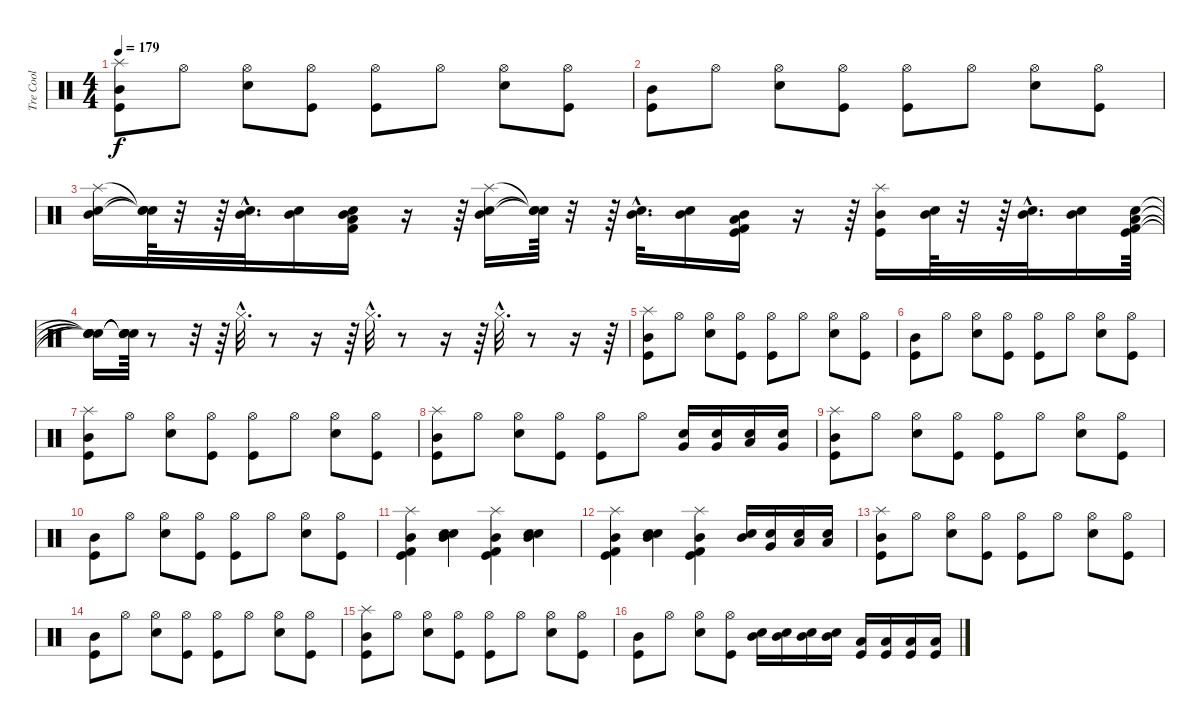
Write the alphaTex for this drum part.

\track ("Tre Cool" "Tre Cool") {instrument percussion}
\staff {score}
\articulation defaults
\ts (4 4)
\tempo 179
\clef neutral
\ks c
("Splash (hit)" "Mid Tom (hit)" "Kick (hit)").8{dy f} "Hi-Hat (open)".8 ("Hi-Hat (open)" "Snare (hit) 2").8 ("Hi-Hat (open)" "Kick (hit)").8 ("Hi-Hat (open)" "Kick (hit)").8 "Hi-Hat (open)".8 ("Hi-Hat (open)" "Snare (hit) 2").8 ("Hi-Hat (open)" "Kick (hit)").8 |
("Mid Tom (hit)" "Kick (hit)").8 "Hi-Hat (open)".8 ("Hi-Hat (open)" "Snare (hit) 2").8 ("Hi-Hat (open)" "Kick (hit)").8 ("Hi-Hat (open)" "Kick (hit)").8 "Hi-Hat (open)".8 ("Hi-Hat (open)" "Snare (hit) 2").8 ("Hi-Hat (open)" "Kick (hit)").8 |
("Mid Tom (hit)" "Snare (hit) 2" "Splash (hit)").16 ("Snare (hit)"{t} "Snare (hit)"{t} "Snare (hit)"{t}).64 r.32 r.64 ("Mid Tom (hit)"{hac} "Snare (hit) 2"{hac}).32{d} ("Mid Tom (hit)" "Snare (hit) 2").16 ("Mid Tom (hit)" "Kick (hit) 2" "Snare (hit) 2" "Low Floor Tom (hit)").16 r.16 r.64 ("Mid Tom (hit)" "Snare (hit) 2" "Splash (hit)").16 ("Snare (hit)"{t} "Snare (hit)"{t} "Snare (hit)"{t}).64 r.32 r.64 ("Mid Tom (hit)"{hac} "Snare (hit) 2"{hac}).32{d} ("Mid Tom (hit)" "Snare (hit) 2").16 ("Mid Tom (hit)" "Low Floor Tom (hit)" "Kick (hit)" "Kick (hit) 2").16 r.16 r.64 ("Mid Tom (hit)" "Kick (hit)" "Splash (hit)").16 ("Mid Tom (hit)" "Snare (hit) 2").64 r.32 r.64 ("Mid Tom (hit)"{hac} "Snare (hit) 2"{hac}).32{d} ("Mid Tom (hit)" "Snare (hit) 2").16 ("Kick (hit)" "Kick (hit) 2" "Snare (hit) 2" "Low Tom (hit)").64 |
("Snare (hit)"{t} "Snare (hit)"{t} "Snare (hit)"{t} "Snare (hit)"{t}).16 ("Snare (hit)"{t} "Snare (hit)"{t} "Snare (hit)"{t} "Snare (hit)"{t}).64 r.8 r.32 r.64 "Hi-Hat (closed)"{hac}.32{d} r.8 r.16 r.64 "Hi-Hat (closed)"{hac}.32{d} r.8 r.16 r.64 "Hi-Hat (closed)"{hac}.32{d} r.8 r.16 r.64 |
("Splash (hit)" "Mid Tom (hit)" "Kick (hit)").8 "Hi-Hat (open)".8 ("Hi-Hat (open)" "Snare (hit) 2").8 ("Hi-Hat (open)" "Kick (hit)").8 ("Hi-Hat (open)" "Kick (hit)").8 "Hi-Hat (open)".8 ("Hi-Hat (open)" "Snare (hit) 2").8 ("Hi-Hat (open)" "Kick (hit)").8 |
("Mid Tom (hit)" "Kick (hit)").8 "Hi-Hat (open)".8 ("Hi-Hat (open)" "Snare (hit) 2").8 ("Hi-Hat (open)" "Kick (hit)").8 ("Hi-Hat (open)" "Kick (hit)").8 "Hi-Hat (open)".8 ("Hi-Hat (open)" "Snare (hit) 2").8 ("Hi-Hat (open)" "Kick (hit)").8 |
("Splash (hit)" "Mid Tom (hit)" "Kick (hit)").8 "Hi-Hat (open)".8 ("Hi-Hat (open)" "Snare (hit) 2").8 ("Hi-Hat (open)" "Kick (hit)").8 ("Hi-Hat (open)" "Kick (hit)").8 "Hi-Hat (open)".8 ("Hi-Hat (open)" "Snare (hit) 2").8 ("Hi-Hat (open)" "Kick (hit)").8 |
("Splash (hit)" "Mid Tom (hit)" "Kick (hit)").8 "Hi-Hat (open)".8 ("Hi-Hat (open)" "Snare (hit) 2").8 ("Hi-Hat (open)" "Kick (hit)").8 ("Hi-Hat (open)" "Kick (hit)").8 "Hi-Hat (open)".8 ("Very Low Tom (hit)" "Snare (hit) 2").16 ("Very Low Tom (hit)" "Snare (hit) 2").16 ("Low Tom (hit)" "Snare (hit) 2").16 ("Very Low Tom (hit)" "Snare (hit) 2").16 |
("Splash (hit)" "Mid Tom (hit)" "Kick (hit)").8 "Hi-Hat (open)".8 ("Hi-Hat (open)" "Snare (hit) 2").8 ("Hi-Hat (open)" "Kick (hit)").8 ("Hi-Hat (open)" "Kick (hit)").8 "Hi-Hat (open)".8 ("Hi-Hat (open)" "Snare (hit) 2").8 ("Hi-Hat (open)" "Kick (hit)").8 |
("Mid Tom (hit)" "Kick (hit)").8 "Hi-Hat (open)".8 ("Hi-Hat (open)" "Snare (hit) 2").8 ("Hi-Hat (open)" "Kick (hit)").8 ("Hi-Hat (open)" "Kick (hit)").8 "Hi-Hat (open)".8 ("Hi-Hat (open)" "Snare (hit) 2").8 ("Hi-Hat (open)" "Kick (hit)").8 |
("Mid Tom (hit)" "Kick (hit)" "Splash (hit)" "Kick (hit) 2").4 ("Mid Tom (hit)" "Snare (hit) 2" "Electric Snare (hit)").4 ("Mid Tom (hit)" "Kick (hit)" "Splash (hit)" "Kick (hit) 2").4 ("Mid Tom (hit)" "Snare (hit) 2" "Electric Snare (hit)").4 |
("Mid Tom (hit)" "Kick (hit)" "Splash (hit)" "Kick (hit) 2").4 ("Mid Tom (hit)" "Snare (hit) 2" "Electric Snare (hit)").4 ("Mid Tom (hit)" "Kick (hit)" "Splash (hit)" "Kick (hit) 2").4 ("Electric Snare (hit)" "Mid Tom (hit)").16 ("Electric Snare (hit)" "Very Low Tom (hit)").16 ("Electric Snare (hit)" "Low Tom (hit)").16 ("Electric Snare (hit)" "Low Tom (hit)").16 |
("Splash (hit)" "Mid Tom (hit)" "Kick (hit)").8 "Hi-Hat (open)".8 ("Hi-Hat (open)" "Snare (hit) 2").8 ("Hi-Hat (open)" "Kick (hit)").8 ("Hi-Hat (open)" "Kick (hit)").8 "Hi-Hat (open)".8 ("Hi-Hat (open)" "Snare (hit) 2").8 ("Hi-Hat (open)" "Kick (hit)").8 |
("Mid Tom (hit)" "Kick (hit)").8 "Hi-Hat (open)".8 ("Hi-Hat (open)" "Snare (hit) 2").8 ("Hi-Hat (open)" "Kick (hit)").8 ("Hi-Hat (open)" "Kick (hit)").8 "Hi-Hat (open)".8 ("Hi-Hat (open)" "Snare (hit) 2").8 ("Hi-Hat (open)" "Kick (hit)").8 |
("Splash (hit)" "Mid Tom (hit)" "Kick (hit)").8 "Hi-Hat (open)".8 ("Hi-Hat (open)" "Snare (hit) 2").8 ("Hi-Hat (open)" "Kick (hit)").8 ("Hi-Hat (open)" "Kick (hit)").8 "Hi-Hat (open)".8 ("Hi-Hat (open)" "Snare (hit) 2").8 ("Hi-Hat (open)" "Kick (hit)").8 |
("Mid Tom (hit)" "Kick (hit)").8 "Hi-Hat (open)".8 ("Hi-Hat (open)" "Snare (hit) 2").8 ("Hi-Hat (open)" "Kick (hit)").8 ("Snare (hit) 2" "Mid Tom (hit)").16 ("Snare (hit) 2" "Mid Tom (hit)").16 ("Snare (hit) 2" "Mid Tom (hit)").16 ("Snare (hit) 2" "Mid Tom (hit)").16 ("Kick (hit)" "Low Floor Tom (hit)").16 ("Kick (hit)" "Low Floor Tom (hit)").16 ("Kick (hit)" "Low Floor Tom (hit)").16 ("Kick (hit)" "Low Floor Tom (hit)").16
